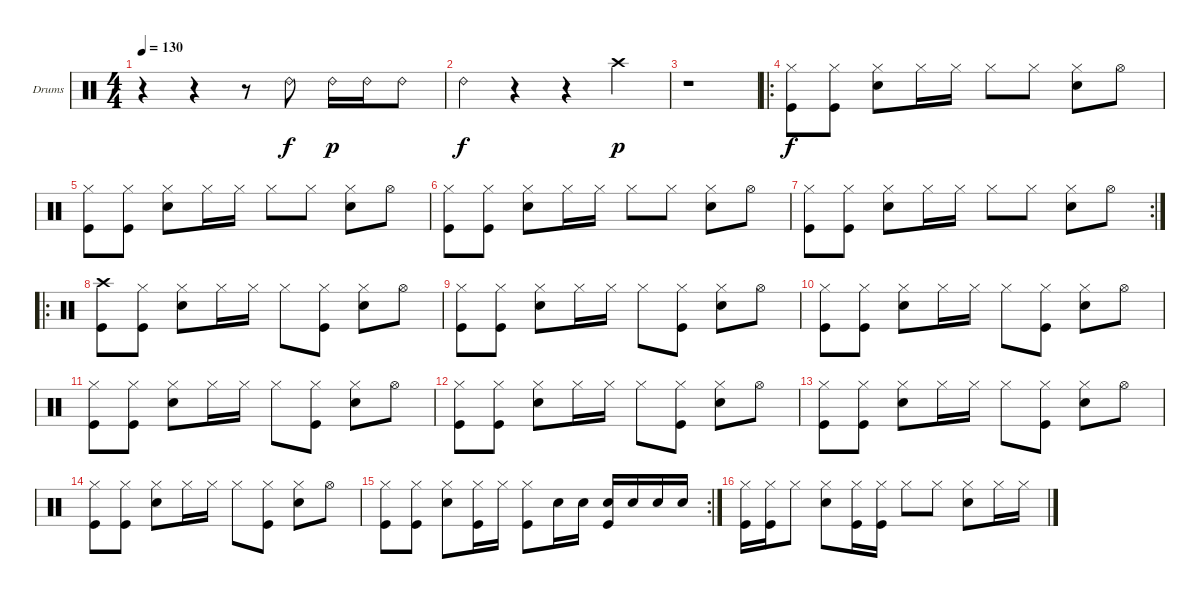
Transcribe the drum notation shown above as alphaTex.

\bracketExtendMode groupsimilarinstruments
\firstSystemTrackNameOrientation horizontal
\otherSystemsTrackNameOrientation horizontal
\track ("Drumkit" "Drums") {instrument percussion}
\staff {score}
\articulation defaults
\ts (4 4)
\tempo 130
\clef neutral
\scale
0.333333
\ks c
r.4{dy f} r.4 r.8 "Ride (bell) 2".8 "Ride (bell) 2".16{dy p} "Ride (bell) 2".16 "Ride (bell) 2".8 |
\scale
0.333333 "Ride (bell) 2".4{dy f} r.4 r.4 "Crash high (hit)".4{dy p} |
\scale
0.333333 r.1 |
\ro
\scale
0.333333 ("Hi-Hat (closed)" "Kick (hit)").8{dy f} ("Hi-Hat (closed)" "Kick (hit)").8 ("Hi-Hat (closed)" "Snare (hit) 2").8 "Hi-Hat (closed)".16 "Hi-Hat (closed)".16 "Hi-Hat (closed)".8 "Hi-Hat (closed)".8 ("Hi-Hat (closed)" "Snare (hit) 2").8 "Hi-Hat (open)".8 |
("Hi-Hat (closed)" "Kick (hit)").8 ("Hi-Hat (closed)" "Kick (hit)").8 ("Hi-Hat (closed)" "Snare (hit) 2").8 "Hi-Hat (closed)".16 "Hi-Hat (closed)".16 "Hi-Hat (closed)".8 "Hi-Hat (closed)".8 ("Hi-Hat (closed)" "Snare (hit) 2").8 "Hi-Hat (open)".8 |
("Hi-Hat (closed)" "Kick (hit)").8 ("Hi-Hat (closed)" "Kick (hit)").8 ("Hi-Hat (closed)" "Snare (hit) 2").8 "Hi-Hat (closed)".16 "Hi-Hat (closed)".16 "Hi-Hat (closed)".8 "Hi-Hat (closed)".8 ("Hi-Hat (closed)" "Snare (hit) 2").8 "Hi-Hat (open)".8 |
\rc 2
("Hi-Hat (closed)" "Kick (hit)").8 ("Hi-Hat (closed)" "Kick (hit)").8 ("Hi-Hat (closed)" "Snare (hit) 2").8 "Hi-Hat (closed)".16 "Hi-Hat (closed)".16 "Hi-Hat (closed)".8 "Hi-Hat (closed)".8 ("Hi-Hat (closed)" "Snare (hit) 2").8 "Hi-Hat (open)".8 |
\ro
("Crash high (hit)" "Kick (hit)").8 ("Hi-Hat (closed)" "Kick (hit)").8 ("Hi-Hat (closed)" "Snare (hit) 2").8 "Hi-Hat (closed)".16 "Hi-Hat (closed)".16 "Hi-Hat (closed)".8 ("Hi-Hat (closed)" "Kick (hit)").8 ("Hi-Hat (closed)" "Snare (hit) 2").8 "Hi-Hat (open)".8 |
("Hi-Hat (closed)" "Kick (hit)").8 ("Hi-Hat (closed)" "Kick (hit)").8 ("Hi-Hat (closed)" "Snare (hit) 2").8 "Hi-Hat (closed)".16 "Hi-Hat (closed)".16 "Hi-Hat (closed)".8 ("Hi-Hat (closed)" "Kick (hit)").8 ("Hi-Hat (closed)" "Snare (hit) 2").8 "Hi-Hat (open)".8 |
("Hi-Hat (closed)" "Kick (hit)").8 ("Hi-Hat (closed)" "Kick (hit)").8 ("Hi-Hat (closed)" "Snare (hit) 2").8 "Hi-Hat (closed)".16 "Hi-Hat (closed)".16 "Hi-Hat (closed)".8 ("Hi-Hat (closed)" "Kick (hit)").8 ("Hi-Hat (closed)" "Snare (hit) 2").8 "Hi-Hat (open)".8 |
("Hi-Hat (closed)" "Kick (hit)").8 ("Hi-Hat (closed)" "Kick (hit)").8 ("Hi-Hat (closed)" "Snare (hit) 2").8 "Hi-Hat (closed)".16 "Hi-Hat (closed)".16 "Hi-Hat (closed)".8 ("Hi-Hat (closed)" "Kick (hit)").8 ("Hi-Hat (closed)" "Snare (hit) 2").8 "Hi-Hat (open)".8 |
("Hi-Hat (closed)" "Kick (hit)").8 ("Hi-Hat (closed)" "Kick (hit)").8 ("Hi-Hat (closed)" "Snare (hit) 2").8 "Hi-Hat (closed)".16 "Hi-Hat (closed)".16 "Hi-Hat (closed)".8 ("Hi-Hat (closed)" "Kick (hit)").8 ("Hi-Hat (closed)" "Snare (hit) 2").8 "Hi-Hat (open)".8 |
("Hi-Hat (closed)" "Kick (hit)").8 ("Hi-Hat (closed)" "Kick (hit)").8 ("Hi-Hat (closed)" "Snare (hit) 2").8 "Hi-Hat (closed)".16 "Hi-Hat (closed)".16 "Hi-Hat (closed)".8 ("Hi-Hat (closed)" "Kick (hit)").8 ("Hi-Hat (closed)" "Snare (hit) 2").8 "Hi-Hat (open)".8 |
("Hi-Hat (closed)" "Kick (hit)").8 ("Hi-Hat (closed)" "Kick (hit)").8 ("Hi-Hat (closed)" "Snare (hit) 2").8 "Hi-Hat (closed)".16 "Hi-Hat (closed)".16 "Hi-Hat (closed)".8 ("Hi-Hat (closed)" "Kick (hit)").8 ("Hi-Hat (closed)" "Snare (hit) 2").8 "Hi-Hat (open)".8 |
\rc 2
("Hi-Hat (closed)" "Kick (hit)").8 ("Hi-Hat (closed)" "Kick (hit)").8 ("Hi-Hat (closed)" "Snare (hit) 2").8 ("Hi-Hat (closed)" "Kick (hit)").16 "Hi-Hat (closed)".16 ("Hi-Hat (closed)" "Kick (hit)").8 "Snare (hit) 2".16 "Snare (hit) 2".16 ("Snare (hit) 2" "Kick (hit)").16 "Snare (hit) 2".16 "Snare (hit) 2".16 "Snare (hit) 2".16 |
("Hi-Hat (closed)" "Kick (hit)").16 ("Hi-Hat (closed)" "Kick (hit)").16 "Hi-Hat (closed)".8 ("Hi-Hat (closed)" "Snare (hit) 2").8 ("Hi-Hat (closed)" "Kick (hit)").16 ("Hi-Hat (closed)" "Kick (hit)").16 "Hi-Hat (closed)".8 "Hi-Hat (closed)".8 ("Hi-Hat (closed)" "Snare (hit) 2").8 "Hi-Hat (closed)".16 "Hi-Hat (closed)".16
